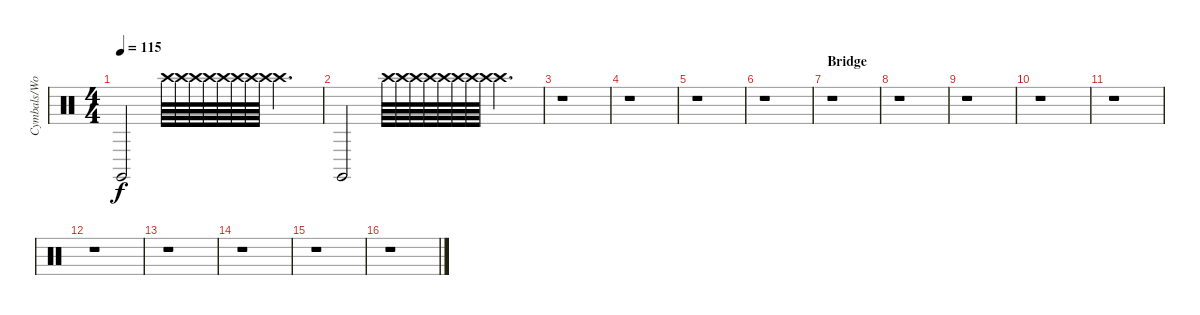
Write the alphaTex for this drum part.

\track ("Cymbals/Woodblock" "Cymbals/Wo") {instrument percussion}
\staff {score}
\articulation defaults
\ts (4 4)
\tempo 115
\clef neutral
\ks c "Claves (hit)".2{dy f} "Crash high (hit)".64 "Crash high (hit)".64 "Crash high (hit)".64 "Crash high (hit)".64 "Crash high (hit)".64 "Crash high (hit)".64 "Crash high (hit)".64 "Crash high (hit)".64 "Crash high (hit)".4{d}
|
"Claves (hit)".2 "Crash high (hit)".64 "Crash high (hit)".64 "Crash high (hit)".64 "Crash high (hit)".64 "Crash high (hit)".64 "Crash high (hit)".64 "Crash high (hit)".64 "Crash high (hit)".64 "Crash high (hit)".4{d} |
r.1 |
r.1 |
r.1 |
r.1 |
\section ("" "Bridge")
r.1 |
r.1 |
r.1 |
r.1 |
r.1 |
r.1 |
r.1 |
r.1 |
r.1 |
r.1
